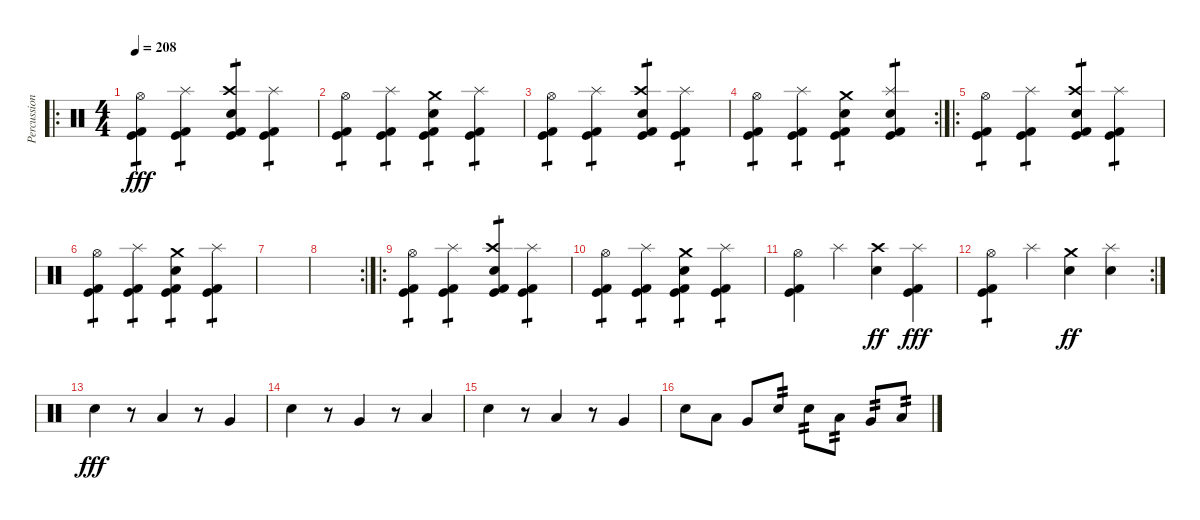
\track ("Percussion" "Percussion") {instrument percussion}
\staff {score}
\articulation defaults
\ro
\ts (4 4)
\tempo 208
\clef neutral
\ks c
("Hi-Hat (open)" "Kick (hit) 2" "Kick (hit)").4{tp 1 dy fff} ("Splash (hit)" "Kick (hit) 2" "Kick (hit)").4{tp 1} ("Crash high (hit)" "Electric Snare (hit)" "Kick (hit) 2" "Kick (hit)").4{tp 1} ("Splash (hit)" "Kick (hit) 2" "Kick (hit)").4{tp 1} |
("Hi-Hat (open)" "Kick (hit) 2" "Kick (hit)").4{tp 1} ("Splash (hit)" "Kick (hit) 2" "Kick (hit)").4{tp 1} ("Crash medium (hit)" "Electric Snare (hit)" "Kick (hit) 2" "Kick (hit)").4{tp 1} ("Splash (hit)" "Kick (hit) 2" "Kick (hit)").4{tp 1} |
("Hi-Hat (open)" "Kick (hit) 2" "Kick (hit)").4{tp 1} ("Splash (hit)" "Kick (hit) 2" "Kick (hit)").4{tp 1} ("Crash high (hit)" "Electric Snare (hit)" "Kick (hit) 2" "Kick (hit)").4{tp 1} ("Splash (hit)" "Kick (hit) 2" "Kick (hit)").4{tp 1} |
\rc 2
("Hi-Hat (open)" "Kick (hit) 2" "Kick (hit)").4{tp 1} ("Splash (hit)" "Kick (hit) 2" "Kick (hit)").4{tp 1} ("Crash medium (hit)" "Electric Snare (hit)" "Kick (hit) 2" "Kick (hit)").4{tp 1} ("Splash (hit)" "Electric Snare (hit)" "Kick (hit) 2" "Kick (hit)").4{tp 1} |
\ro
("Hi-Hat (open)" "Kick (hit) 2" "Kick (hit)").4{tp 1} ("Splash (hit)" "Kick (hit) 2" "Kick (hit)").4{tp 1} ("Crash high (hit)" "Electric Snare (hit)" "Kick (hit) 2" "Kick (hit)").4{tp 1} ("Splash (hit)" "Kick (hit) 2" "Kick (hit)").4{tp 1} |
("Hi-Hat (open)" "Kick (hit) 2" "Kick (hit)").4{tp 1} ("Splash (hit)" "Kick (hit) 2" "Kick (hit)").4{tp 1} ("Crash medium (hit)" "Electric Snare (hit)" "Kick (hit) 2" "Kick (hit)").4{tp 1} ("Splash (hit)" "Kick (hit) 2" "Kick (hit)").4{tp 1} |
|
\rc 2
|
\ro
("Hi-Hat (open)" "Kick (hit) 2" "Kick (hit)").4{tp 1} ("Splash (hit)" "Kick (hit) 2" "Kick (hit)").4{tp 1} ("Crash high (hit)" "Electric Snare (hit)" "Kick (hit) 2" "Kick (hit)").4{tp 1} ("Splash (hit)" "Kick (hit) 2" "Kick (hit)").4{tp 1} |
("Hi-Hat (open)" "Kick (hit) 2" "Kick (hit)").4{tp 1} ("Splash (hit)" "Kick (hit) 2" "Kick (hit)").4{tp 1} ("Crash medium (hit)" "Electric Snare (hit)" "Kick (hit) 2" "Kick (hit)").4{tp 1} ("Splash (hit)" "Kick (hit) 2" "Kick (hit)").4{tp 1} |
("Hi-Hat (open)" "Kick (hit) 2" "Kick (hit)").4 "Splash (hit)".4 ("Crash high (hit)" "Electric Snare (hit)").4{dy ff} ("Splash (hit)" "Kick (hit) 2" "Kick (hit)").4{dy fff} |
\rc 2
("Hi-Hat (open)" "Kick (hit) 2" "Kick (hit)").4{tp 1} "Splash (hit)".4 ("Crash medium (hit)" "Electric Snare (hit)").4{dy ff} ("Splash (hit)" "Electric Snare (hit)").4 |
"Electric Snare (hit)".4{dy fff} r.8 "Low Tom (hit)".4 r.8 "Very Low Tom (hit)".4 |
"Electric Snare (hit)".4 r.8 "Very Low Tom (hit)".4 r.8 "Low Floor Tom (hit)".4 |
"Electric Snare (hit)".4 r.8 "Low Tom (hit)".4 r.8 "Very Low Tom (hit)".4 |
"Electric Snare (hit)".8 "Low Tom (hit)".8 "Very Low Tom (hit)".8 "Electric Snare (hit)".8{tp 2} "Electric Snare (hit)".8{tp 2} "Low Tom (hit)".8{tp 2} "Very Low Tom (hit)".8{tp 2} "Low Floor Tom (hit)".8{tp 2}
